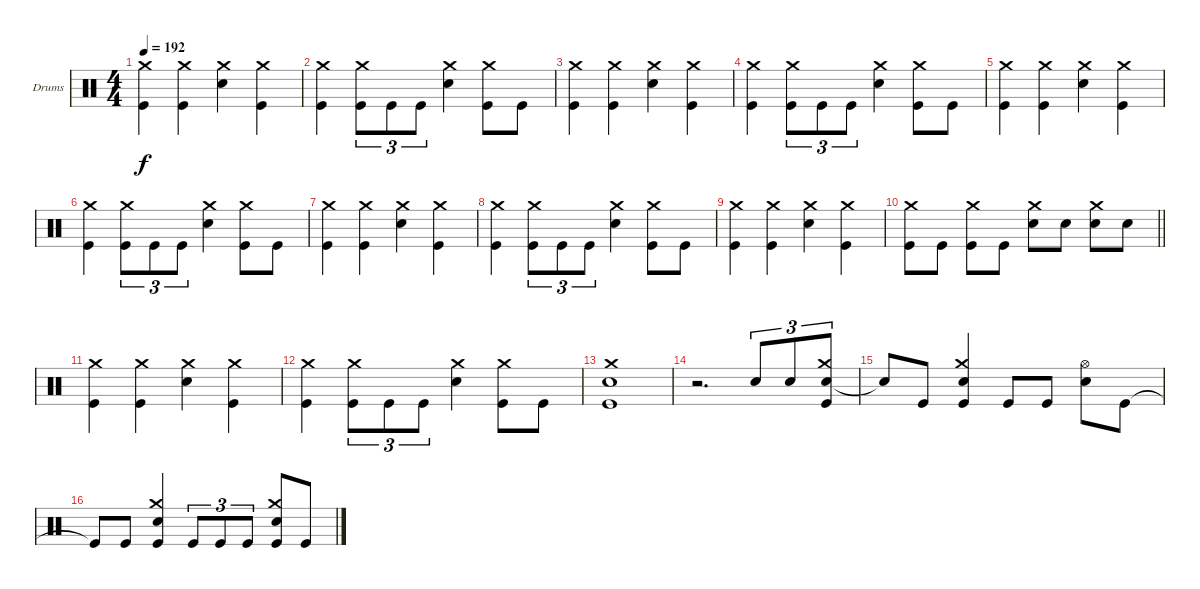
\defaultSystemsLayout 4
\bracketExtendMode groupsimilarinstruments
\firstSystemTrackNameOrientation horizontal
\otherSystemsTrackNameOrientation horizontal
\track ("Drumkit" "Drums") {instrument percussion}
\staff {score}
\articulation defaults
\ts (4 4)
\tempo 192
\clef neutral
\ks c
("Kick (hit)" "Crash medium (hit)").4{dy f} ("Kick (hit)" "Crash medium (hit)").4 ("Snare (hit) 2" "Crash medium (hit)").4 ("Kick (hit)" "Crash medium (hit)").4 |
("Kick (hit)" "Crash medium (hit)").4 ("Crash medium (hit)" "Kick (hit)").8{tu (3 2)} "Kick (hit)".8{tu (3 2)} "Kick (hit)".8{tu (3 2)} ("Snare (hit) 2" "Crash medium (hit)").4 ("Crash medium (hit)" "Kick (hit)").8 "Kick (hit)".8 |
("Kick (hit)" "Crash medium (hit)").4 ("Kick (hit)" "Crash medium (hit)").4 ("Snare (hit) 2" "Crash medium (hit)").4 ("Kick (hit)" "Crash medium (hit)").4 |
("Kick (hit)" "Crash medium (hit)").4 ("Crash medium (hit)" "Kick (hit)").8{tu (3 2)} "Kick (hit)".8{tu (3 2)} "Kick (hit)".8{tu (3 2)} ("Snare (hit) 2" "Crash medium (hit)").4 ("Crash medium (hit)" "Kick (hit)").8 "Kick (hit)".8 |
("Kick (hit)" "Crash medium (hit)").4 ("Kick (hit)" "Crash medium (hit)").4 ("Snare (hit) 2" "Crash medium (hit)").4 ("Kick (hit)" "Crash medium (hit)").4 |
("Kick (hit)" "Crash medium (hit)").4 ("Crash medium (hit)" "Kick (hit)").8{tu (3 2)} "Kick (hit)".8{tu (3 2)} "Kick (hit)".8{tu (3 2)} ("Snare (hit) 2" "Crash medium (hit)").4 ("Crash medium (hit)" "Kick (hit)").8 "Kick (hit)".8 |
("Kick (hit)" "Crash medium (hit)").4 ("Kick (hit)" "Crash medium (hit)").4 ("Snare (hit) 2" "Crash medium (hit)").4 ("Kick (hit)" "Crash medium (hit)").4 |
("Kick (hit)" "Crash medium (hit)").4 ("Crash medium (hit)" "Kick (hit)").8{tu (3 2)} "Kick (hit)".8{tu (3 2)} "Kick (hit)".8{tu (3 2)} ("Snare (hit) 2" "Crash medium (hit)").4 ("Crash medium (hit)" "Kick (hit)").8 "Kick (hit)".8 |
("Kick (hit)" "Crash medium (hit)").4 ("Kick (hit)" "Crash medium (hit)").4 ("Snare (hit) 2" "Crash medium (hit)").4 ("Kick (hit)" "Crash medium (hit)").4 |
\barLineRight lightlight
("Crash medium (hit)" "Kick (hit)").8 "Kick (hit)".8 ("Kick (hit)" "Crash medium (hit)").8 "Kick (hit)".8 ("Crash medium (hit)" "Snare (hit) 2").8 "Snare (hit) 2".8 ("Snare (hit) 2" "Crash medium (hit)").8 "Snare (hit) 2".8 |
("Kick (hit)" "Crash medium (hit)").4 ("Kick (hit)" "Crash medium (hit)").4 ("Snare (hit) 2" "Crash medium (hit)").4 ("Kick (hit)" "Crash medium (hit)").4 |
("Kick (hit)" "Crash medium (hit)").4 ("Crash medium (hit)" "Kick (hit)").8{tu (3 2)} "Kick (hit)".8{tu (3 2)} "Kick (hit)".8{tu (3 2)} ("Snare (hit) 2" "Crash medium (hit)").4 ("Crash medium (hit)" "Kick (hit)").8 "Kick (hit)".8 |
("Crash medium (hit)" "Kick (hit)" "Snare (hit) 2").1 |
r.2{d} "Snare (hit) 2".8{tu (3 2)} "Snare (hit) 2".8{tu (3 2)} ("Snare (hit) 2" "Crash medium (hit)" "Kick (hit)").8{tu (3 2)} |
"Snare (hit) 2"{t}.8 "Kick (hit)".8 ("Kick (hit)" "Crash medium (hit)" "Snare (hit) 2").4 "Kick (hit)".8 "Kick (hit)".8 ("Snare (hit) 2" "Hi-Hat (open)").8 "Kick (hit)".8 |
"Kick (hit)"{t}.8 "Kick (hit)".8 ("Kick (hit)" "Snare (hit) 2" "Crash medium (hit)").4 "Kick (hit)".8{tu (3 2)} "Kick (hit)".8{tu (3 2)} "Kick (hit)".8{tu (3 2)} ("Kick (hit)" "Snare (hit) 2" "Crash medium (hit)").8 "Kick (hit)".8
